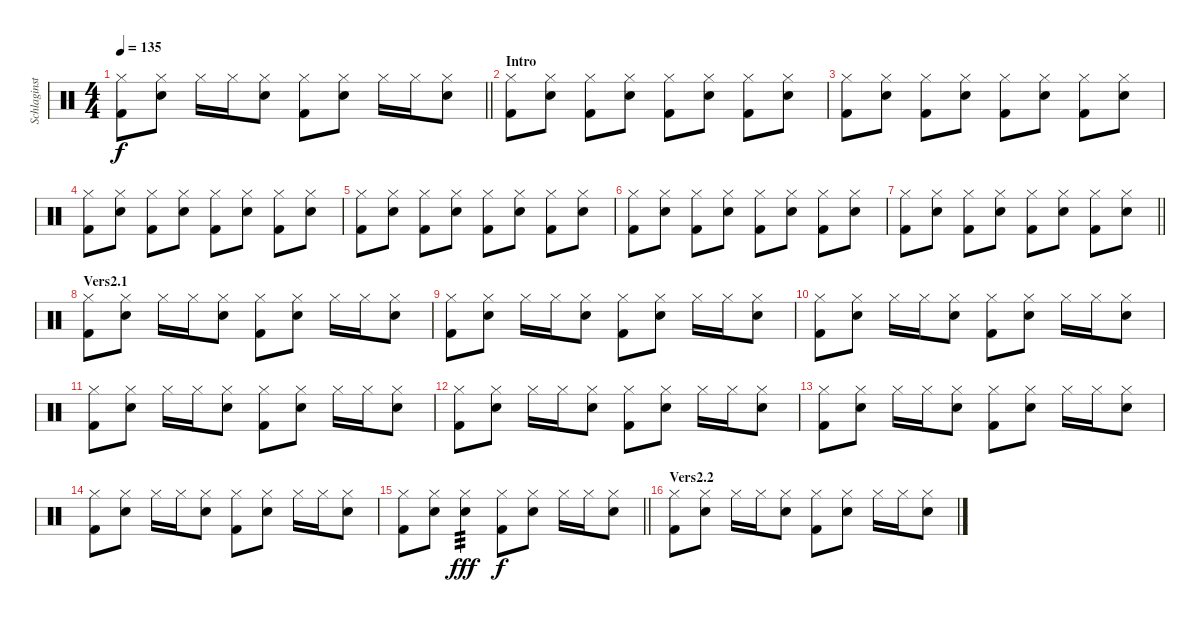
\track ("Schlaginstrumente - Auswahl" "Schlaginst") {instrument percussion}
\staff {score}
\articulation defaults
\ts (4 4)
\tempo 135
\clef neutral
\barLineRight lightlight
\ks c
("Hi-Hat (closed)" "Kick (hit) 2").8{dy f} ("Hi-Hat (closed)" "Snare (hit) 2").8 "Hi-Hat (closed)".16 "Hi-Hat (closed)".16 ("Hi-Hat (closed)" "Snare (hit) 2").8 ("Hi-Hat (closed)" "Kick (hit) 2").8 ("Hi-Hat (closed)" "Snare (hit) 2").8 "Hi-Hat (closed)".16 "Hi-Hat (closed)".16 ("Hi-Hat (closed)" "Snare (hit) 2").8 |
\section ("" "Intro")
("Hi-Hat (closed)" "Kick (hit) 2").8 ("Hi-Hat (closed)" "Snare (hit) 2").8 ("Hi-Hat (closed)" "Kick (hit) 2").8 ("Hi-Hat (closed)" "Snare (hit) 2").8 ("Hi-Hat (closed)" "Kick (hit) 2").8 ("Hi-Hat (closed)" "Snare (hit) 2").8 ("Hi-Hat (closed)" "Kick (hit) 2").8 ("Hi-Hat (closed)" "Snare (hit) 2").8 |
("Hi-Hat (closed)" "Kick (hit) 2").8 ("Hi-Hat (closed)" "Snare (hit) 2").8 ("Hi-Hat (closed)" "Kick (hit) 2").8 ("Hi-Hat (closed)" "Snare (hit) 2").8 ("Hi-Hat (closed)" "Kick (hit) 2").8 ("Hi-Hat (closed)" "Snare (hit) 2").8 ("Hi-Hat (closed)" "Kick (hit) 2").8 ("Hi-Hat (closed)" "Snare (hit) 2").8 |
("Hi-Hat (closed)" "Kick (hit) 2").8 ("Hi-Hat (closed)" "Snare (hit) 2").8 ("Hi-Hat (closed)" "Kick (hit) 2").8 ("Hi-Hat (closed)" "Snare (hit) 2").8 ("Hi-Hat (closed)" "Kick (hit) 2").8 ("Hi-Hat (closed)" "Snare (hit) 2").8 ("Hi-Hat (closed)" "Kick (hit) 2").8 ("Hi-Hat (closed)" "Snare (hit) 2").8 |
("Hi-Hat (closed)" "Kick (hit) 2").8 ("Hi-Hat (closed)" "Snare (hit) 2").8 ("Hi-Hat (closed)" "Kick (hit) 2").8 ("Hi-Hat (closed)" "Snare (hit) 2").8 ("Hi-Hat (closed)" "Kick (hit) 2").8 ("Hi-Hat (closed)" "Snare (hit) 2").8 ("Hi-Hat (closed)" "Kick (hit) 2").8 ("Hi-Hat (closed)" "Snare (hit) 2").8 |
("Hi-Hat (closed)" "Kick (hit) 2").8 ("Hi-Hat (closed)" "Snare (hit) 2").8 ("Hi-Hat (closed)" "Kick (hit) 2").8 ("Hi-Hat (closed)" "Snare (hit) 2").8 ("Hi-Hat (closed)" "Kick (hit) 2").8 ("Hi-Hat (closed)" "Snare (hit) 2").8 ("Hi-Hat (closed)" "Kick (hit) 2").8 ("Hi-Hat (closed)" "Snare (hit) 2").8 |
\barLineRight lightlight
("Hi-Hat (closed)" "Kick (hit) 2").8 ("Hi-Hat (closed)" "Snare (hit) 2").8 ("Hi-Hat (closed)" "Kick (hit) 2").8 ("Hi-Hat (closed)" "Snare (hit) 2").8 ("Hi-Hat (closed)" "Kick (hit) 2").8 ("Hi-Hat (closed)" "Snare (hit) 2").8 ("Hi-Hat (closed)" "Kick (hit) 2").8 ("Hi-Hat (closed)" "Snare (hit) 2").8 |
\section ("" "Vers2.1")
("Hi-Hat (closed)" "Kick (hit) 2").8 ("Hi-Hat (closed)" "Snare (hit) 2").8 "Hi-Hat (closed)".16 "Hi-Hat (closed)".16 ("Hi-Hat (closed)" "Snare (hit) 2").8 ("Hi-Hat (closed)" "Kick (hit) 2").8 ("Hi-Hat (closed)" "Snare (hit) 2").8 "Hi-Hat (closed)".16 "Hi-Hat (closed)".16 ("Hi-Hat (closed)" "Snare (hit) 2").8 |
("Hi-Hat (closed)" "Kick (hit) 2").8 ("Hi-Hat (closed)" "Snare (hit) 2").8 "Hi-Hat (closed)".16 "Hi-Hat (closed)".16 ("Hi-Hat (closed)" "Snare (hit) 2").8 ("Hi-Hat (closed)" "Kick (hit) 2").8 ("Hi-Hat (closed)" "Snare (hit) 2").8 "Hi-Hat (closed)".16 "Hi-Hat (closed)".16 ("Hi-Hat (closed)" "Snare (hit) 2").8 |
("Hi-Hat (closed)" "Kick (hit) 2").8 ("Hi-Hat (closed)" "Snare (hit) 2").8 "Hi-Hat (closed)".16 "Hi-Hat (closed)".16 ("Hi-Hat (closed)" "Snare (hit) 2").8 ("Hi-Hat (closed)" "Kick (hit) 2").8 ("Hi-Hat (closed)" "Snare (hit) 2").8 "Hi-Hat (closed)".16 "Hi-Hat (closed)".16 ("Hi-Hat (closed)" "Snare (hit) 2").8 |
("Hi-Hat (closed)" "Kick (hit) 2").8 ("Hi-Hat (closed)" "Snare (hit) 2").8 "Hi-Hat (closed)".16 "Hi-Hat (closed)".16 ("Hi-Hat (closed)" "Snare (hit) 2").8 ("Hi-Hat (closed)" "Kick (hit) 2").8 ("Hi-Hat (closed)" "Snare (hit) 2").8 "Hi-Hat (closed)".16 "Hi-Hat (closed)".16 ("Hi-Hat (closed)" "Snare (hit) 2").8 |
("Hi-Hat (closed)" "Kick (hit) 2").8 ("Hi-Hat (closed)" "Snare (hit) 2").8 "Hi-Hat (closed)".16 "Hi-Hat (closed)".16 ("Hi-Hat (closed)" "Snare (hit) 2").8 ("Hi-Hat (closed)" "Kick (hit) 2").8 ("Hi-Hat (closed)" "Snare (hit) 2").8 "Hi-Hat (closed)".16 "Hi-Hat (closed)".16 ("Hi-Hat (closed)" "Snare (hit) 2").8 |
("Hi-Hat (closed)" "Kick (hit) 2").8 ("Hi-Hat (closed)" "Snare (hit) 2").8 "Hi-Hat (closed)".16 "Hi-Hat (closed)".16 ("Hi-Hat (closed)" "Snare (hit) 2").8 ("Hi-Hat (closed)" "Kick (hit) 2").8 ("Hi-Hat (closed)" "Snare (hit) 2").8 "Hi-Hat (closed)".16 "Hi-Hat (closed)".16 ("Hi-Hat (closed)" "Snare (hit) 2").8 |
("Hi-Hat (closed)" "Kick (hit) 2").8 ("Hi-Hat (closed)" "Snare (hit) 2").8 "Hi-Hat (closed)".16 "Hi-Hat (closed)".16 ("Hi-Hat (closed)" "Snare (hit) 2").8 ("Hi-Hat (closed)" "Kick (hit) 2").8 ("Hi-Hat (closed)" "Snare (hit) 2").8 "Hi-Hat (closed)".16 "Hi-Hat (closed)".16 ("Hi-Hat (closed)" "Snare (hit) 2").8 |
\barLineRight lightlight
("Hi-Hat (closed)" "Kick (hit) 2").8 ("Hi-Hat (closed)" "Snare (hit) 2").8 ("Hi-Hat (closed)" "Snare (hit) 2").4{tp 3 dy fff} ("Hi-Hat (closed)" "Kick (hit) 2").8{dy f} ("Hi-Hat (closed)" "Snare (hit) 2").8 "Hi-Hat (closed)".16 "Hi-Hat (closed)".16 ("Hi-Hat (closed)" "Snare (hit) 2").8 |
\section ("" "Vers2.2")
("Hi-Hat (closed)" "Kick (hit) 2").8 ("Hi-Hat (closed)" "Snare (hit) 2").8 "Hi-Hat (closed)".16 "Hi-Hat (closed)".16 ("Hi-Hat (closed)" "Snare (hit) 2").8 ("Hi-Hat (closed)" "Kick (hit) 2").8 ("Hi-Hat (closed)" "Snare (hit) 2").8 "Hi-Hat (closed)".16 "Hi-Hat (closed)".16 ("Hi-Hat (closed)" "Snare (hit) 2").8
